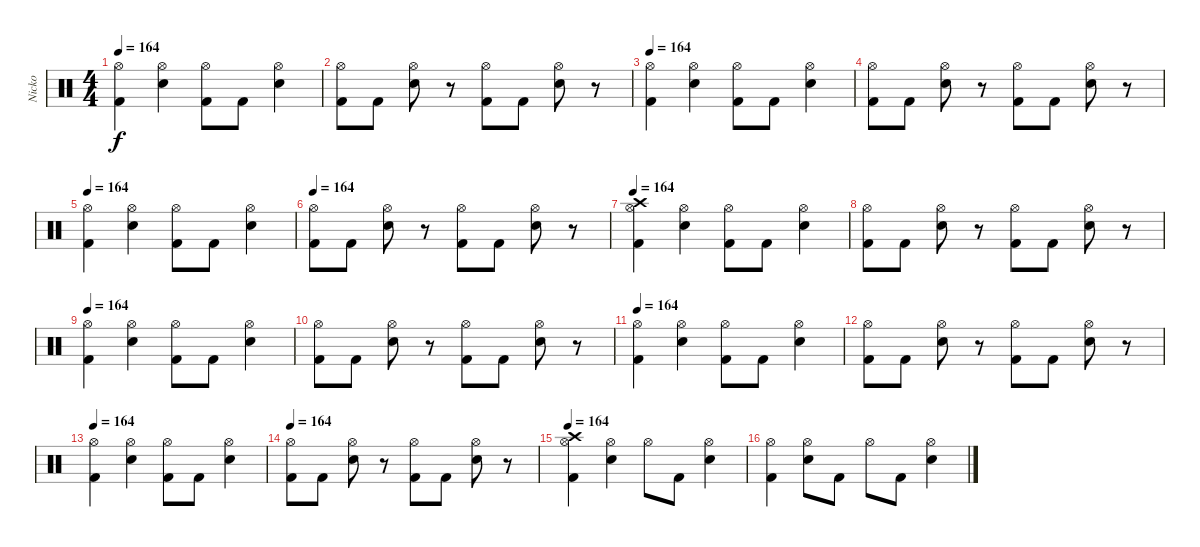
\track ("Nicko" "Nicko") {instrument percussion}
\staff {score}
\articulation defaults
\ts (4 4)
\tempo 164
\clef neutral
\ks c
("Hi-Hat (open)" "Kick (hit) 2").4{dy f} ("Hi-Hat (open)" "Snare (hit) 2").4 ("Hi-Hat (open)" "Kick (hit) 2").8 "Kick (hit) 2".8 ("Hi-Hat (open)" "Snare (hit) 2").4 |
("Hi-Hat (open)" "Kick (hit) 2").8 "Kick (hit) 2".8 ("Hi-Hat (open)" "Snare (hit) 2").8 r.8 ("Hi-Hat (open)" "Kick (hit) 2").8 "Kick (hit) 2".8 ("Hi-Hat (open)" "Snare (hit) 2").8 r.8 |
\tempo 164
("Hi-Hat (open)" "Kick (hit) 2").4 ("Hi-Hat (open)" "Snare (hit) 2").4 ("Hi-Hat (open)" "Kick (hit) 2").8 "Kick (hit) 2".8 ("Hi-Hat (open)" "Snare (hit) 2").4 |
("Hi-Hat (open)" "Kick (hit) 2").8 "Kick (hit) 2".8 ("Hi-Hat (open)" "Snare (hit) 2").8 r.8 ("Hi-Hat (open)" "Kick (hit) 2").8 "Kick (hit) 2".8 ("Hi-Hat (open)" "Snare (hit) 2").8 r.8 |
\tempo 164
("Hi-Hat (open)" "Kick (hit) 2").4 ("Hi-Hat (open)" "Snare (hit) 2").4 ("Hi-Hat (open)" "Kick (hit) 2").8 "Kick (hit) 2".8 ("Hi-Hat (open)" "Snare (hit) 2").4 |
\tempo 164
("Hi-Hat (open)" "Kick (hit) 2").8 "Kick (hit) 2".8 ("Hi-Hat (open)" "Snare (hit) 2").8 r.8 ("Hi-Hat (open)" "Kick (hit) 2").8 "Kick (hit) 2".8 ("Hi-Hat (open)" "Snare (hit) 2").8 r.8 |
\tempo 164
("Hi-Hat (open)" "Crash high (hit)" "Kick (hit) 2").4 ("Hi-Hat (open)" "Snare (hit) 2").4 ("Hi-Hat (open)" "Kick (hit) 2").8 "Kick (hit) 2".8 ("Hi-Hat (open)" "Snare (hit) 2").4 |
("Hi-Hat (open)" "Kick (hit) 2").8 "Kick (hit) 2".8 ("Hi-Hat (open)" "Snare (hit) 2").8 r.8 ("Hi-Hat (open)" "Kick (hit) 2").8 "Kick (hit) 2".8 ("Hi-Hat (open)" "Snare (hit) 2").8 r.8 |
\tempo 164
("Hi-Hat (open)" "Kick (hit) 2").4 ("Hi-Hat (open)" "Snare (hit) 2").4 ("Hi-Hat (open)" "Kick (hit) 2").8 "Kick (hit) 2".8 ("Hi-Hat (open)" "Snare (hit) 2").4 |
("Hi-Hat (open)" "Kick (hit) 2").8 "Kick (hit) 2".8 ("Hi-Hat (open)" "Snare (hit) 2").8 r.8 ("Hi-Hat (open)" "Kick (hit) 2").8 "Kick (hit) 2".8 ("Hi-Hat (open)" "Snare (hit) 2").8 r.8 |
\tempo 164
("Hi-Hat (open)" "Kick (hit) 2").4 ("Hi-Hat (open)" "Snare (hit) 2").4 ("Hi-Hat (open)" "Kick (hit) 2").8 "Kick (hit) 2".8 ("Hi-Hat (open)" "Snare (hit) 2").4 |
("Hi-Hat (open)" "Kick (hit) 2").8 "Kick (hit) 2".8 ("Hi-Hat (open)" "Snare (hit) 2").8 r.8 ("Hi-Hat (open)" "Kick (hit) 2").8 "Kick (hit) 2".8 ("Hi-Hat (open)" "Snare (hit) 2").8 r.8 |
\tempo 164
("Hi-Hat (open)" "Kick (hit) 2").4 ("Hi-Hat (open)" "Snare (hit) 2").4 ("Hi-Hat (open)" "Kick (hit) 2").8 "Kick (hit) 2".8 ("Hi-Hat (open)" "Snare (hit) 2").4 |
\tempo 164
("Hi-Hat (open)" "Kick (hit) 2").8 "Kick (hit) 2".8 ("Hi-Hat (open)" "Snare (hit) 2").8 r.8 ("Hi-Hat (open)" "Kick (hit) 2").8 "Kick (hit) 2".8 ("Hi-Hat (open)" "Snare (hit) 2").8 r.8 |
\tempo 164
("Hi-Hat (open)" "Crash high (hit)" "Kick (hit) 2").4 ("Hi-Hat (open)" "Snare (hit) 2").4 "Hi-Hat (open)".8 "Kick (hit) 2".8 ("Hi-Hat (open)" "Snare (hit) 2").4 |
("Hi-Hat (open)" "Kick (hit) 2").4 ("Hi-Hat (open)" "Snare (hit) 2").8 "Kick (hit) 2".8 "Hi-Hat (open)".8 "Kick (hit) 2".8 ("Hi-Hat (open)" "Snare (hit) 2").4
